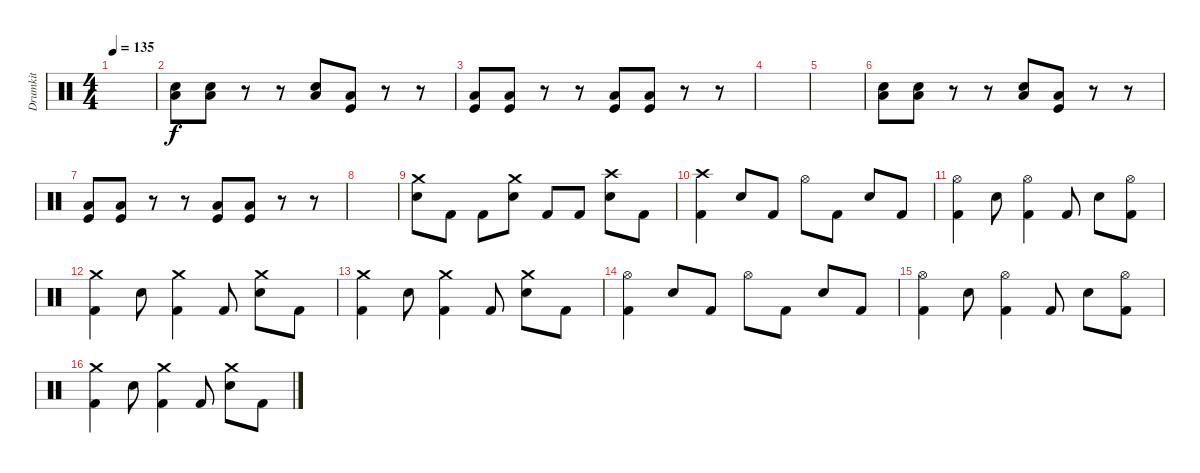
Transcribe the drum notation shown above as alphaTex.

\track ("Drumkit" "Drumkit") {instrument percussion}
\staff {score}
\articulation defaults
\ts (4 4)
\tempo 135
\clef neutral
\ks c
|
("Low Tom (hit)" "Snare (hit) 2").8 ("Low Tom (hit)" "Snare (hit) 2").8 r.8 r.8 ("Low Tom (hit)" "Snare (hit) 2").8 ("Low Tom (hit)" "Kick (hit)").8 r.8 r.8 |
("Low Tom (hit)" "Kick (hit)").8 ("Low Tom (hit)" "Kick (hit)").8 r.8 r.8 ("Low Tom (hit)" "Kick (hit)").8 ("Low Floor Tom (hit)" "Kick (hit)").8 r.8 r.8 |
|
|
("Low Tom (hit)" "Snare (hit) 2").8 ("Low Tom (hit)" "Snare (hit) 2").8 r.8 r.8 ("Low Tom (hit)" "Snare (hit) 2").8 ("Low Tom (hit)" "Kick (hit)").8 r.8 r.8 |
("Low Tom (hit)" "Kick (hit)").8 ("Low Tom (hit)" "Kick (hit)").8 r.8 r.8 ("Low Tom (hit)" "Kick (hit)").8 ("Low Floor Tom (hit)" "Kick (hit)").8 r.8 r.8 |
|
("Crash medium (hit)" "Snare (hit) 2").8 "Kick (hit) 2".8 "Kick (hit) 2".8 ("Crash medium (hit)" "Snare (hit) 2").8 "Kick (hit) 2".8 "Kick (hit) 2".8 ("Crash high (hit)" "Snare (hit) 2").8 "Kick (hit) 2".8 |
("Crash high (hit)" "Kick (hit) 2").4 "Snare (hit) 2".8 "Kick (hit) 2".8 "Hi-Hat (open)".8 "Kick (hit) 2".8 "Snare (hit) 2".8 "Kick (hit) 2".8 |
("Hi-Hat (open)" "Kick (hit) 2").4 "Snare (hit) 2".8 ("Hi-Hat (open)" "Kick (hit) 2").4 "Kick (hit) 2".8 "Snare (hit) 2".8 ("Hi-Hat (open)" "Kick (hit) 2").8 |
("Crash medium (hit)" "Kick (hit) 2").4 "Snare (hit) 2".8 ("Crash medium (hit)" "Kick (hit) 2").4 "Kick (hit) 2".8 ("Crash medium (hit)" "Snare (hit) 2").8 "Kick (hit) 2".8 |
("Crash medium (hit)" "Kick (hit) 2").4 "Snare (hit) 2".8 ("Crash medium (hit)" "Kick (hit) 2").4 "Kick (hit) 2".8 ("Crash medium (hit)" "Snare (hit) 2").8 "Kick (hit) 2".8 |
("Hi-Hat (open)" "Kick (hit) 2").4 "Snare (hit) 2".8 "Kick (hit) 2".8 "Hi-Hat (open)".8 "Kick (hit) 2".8 "Snare (hit) 2".8 "Kick (hit) 2".8 |
("Hi-Hat (open)" "Kick (hit) 2").4 "Snare (hit) 2".8 ("Hi-Hat (open)" "Kick (hit) 2").4 "Kick (hit) 2".8 "Snare (hit) 2".8 ("Hi-Hat (open)" "Kick (hit) 2").8 |
("Crash medium (hit)" "Kick (hit) 2").4 "Snare (hit) 2".8 ("Crash medium (hit)" "Kick (hit) 2").4 "Kick (hit) 2".8 ("Crash medium (hit)" "Snare (hit) 2").8 "Kick (hit) 2".8
